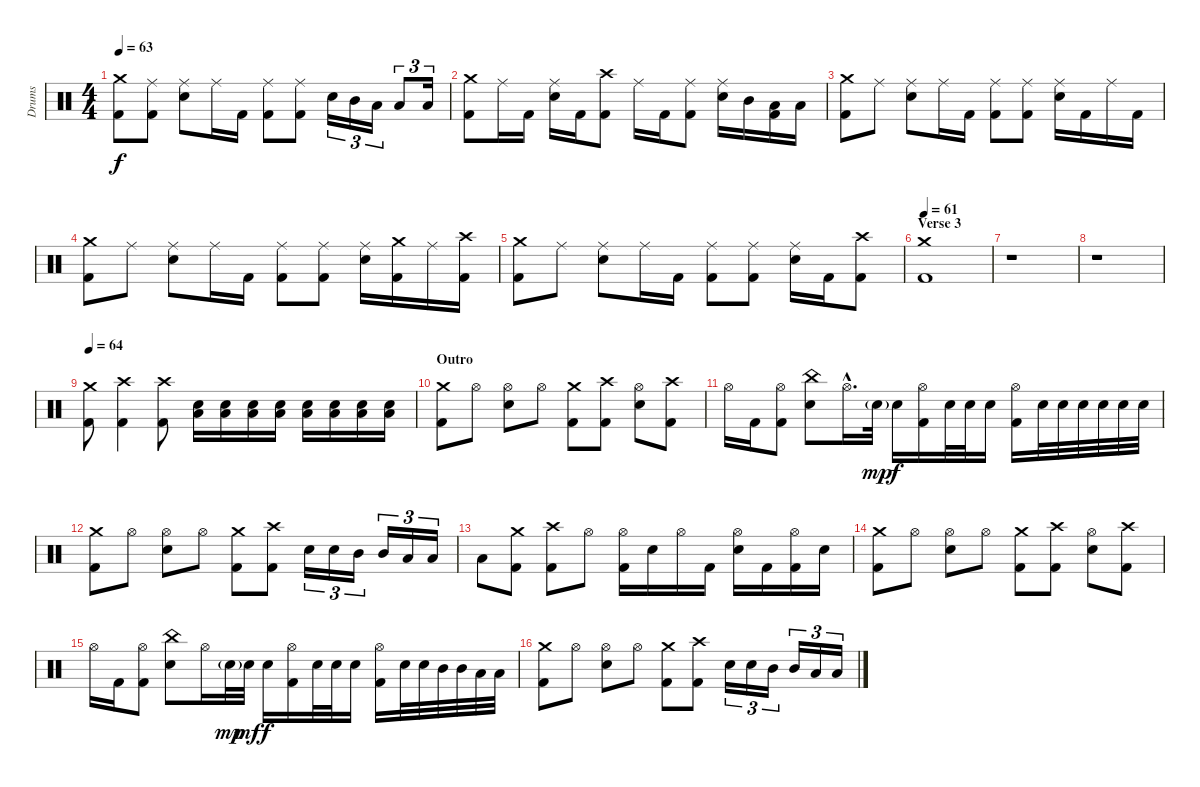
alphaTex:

\track ("Drums" "Drums") {instrument percussion}
\staff {score}
\articulation defaults
\ts (4 4)
\tempo 63
\clef neutral
\ks c
("Crash medium (hit)" "Kick (hit) 2").8{dy f} ("Ride (middle)" "Kick (hit) 2").8 ("Ride (middle)" "Electric Snare (hit)").8 "Ride (middle)".16 "Kick (hit) 2".16 ("Ride (middle)" "Kick (hit) 2").8 ("Ride (middle)" "Kick (hit) 2").8 "Electric Snare (hit)".16{tu (3 2)} "Mid Tom (hit)".16{tu (3 2)} "Low Tom (hit)".16{tu (3 2)} "Low Floor Tom (hit)".8{tu (3 2)} "Low Floor Tom (hit)".16{tu (3 2)} |
("Crash medium (hit)" "Kick (hit) 2").8 "Ride (middle)".16 "Kick (hit) 2".16 ("Ride (middle)" "Electric Snare (hit)").16 "Kick (hit) 2".16 ("Crash high (hit)" "Kick (hit) 2").8 "Ride (middle)".16 "Kick (hit) 2".16 ("Ride (middle)" "Kick (hit) 2").8 ("Ride (middle)" "Electric Snare (hit)").16 "Mid Tom (hit)".16 ("Low Tom (hit)" "Kick (hit) 2").16 "Low Tom (hit)".16 |
("Crash medium (hit)" "Kick (hit) 2").8 "Ride (middle)".8 ("Ride (middle)" "Electric Snare (hit)").8 "Ride (middle)".16 "Kick (hit) 2".16 ("Ride (middle)" "Kick (hit) 2").8 ("Ride (middle)" "Kick (hit) 2").8 ("Ride (middle)" "Electric Snare (hit)").16 "Kick (hit) 2".16 "Ride (middle)".16 "Kick (hit) 2".16 |
("Crash medium (hit)" "Kick (hit) 2").8 "Ride (middle)".8 ("Ride (middle)" "Electric Snare (hit)").8 "Ride (middle)".16 "Kick (hit) 2".16 ("Ride (middle)" "Kick (hit) 2").8 ("Ride (middle)" "Kick (hit) 2").8 ("Ride (middle)" "Electric Snare (hit)").16 ("Crash medium (hit)" "Kick (hit) 2").16 "Ride (middle)".16 ("Crash high (hit)" "Kick (hit) 2").16 |
("Crash medium (hit)" "Kick (hit) 2").8 "Ride (middle)".8 ("Ride (middle)" "Electric Snare (hit)").8 "Ride (middle)".16 "Kick (hit) 2".16 ("Ride (middle)" "Kick (hit) 2").8 ("Ride (middle)" "Kick (hit) 2").8 ("Ride (middle)" "Electric Snare (hit)").16 "Kick (hit) 2".16 ("Crash high (hit)" "Kick (hit) 2").8 |
\section ("" "Verse 3")
\tempo 61
("Crash medium (hit)" "Kick (hit) 2").1 |
r.1 |
r.1 |
\tempo 64
("Crash medium (hit)" "Kick (hit) 2").8 ("Crash high (hit)" "Kick (hit) 2").4 ("Crash high (hit)" "Kick (hit) 2").8 ("Low Floor Tom (hit)" "Electric Snare (hit)").16 ("Low Floor Tom (hit)" "Electric Snare (hit)").16 ("Low Floor Tom (hit)" "Electric Snare (hit)").16 ("Low Floor Tom (hit)" "Electric Snare (hit)").16 ("Low Floor Tom (hit)" "Electric Snare (hit)").16 ("Low Floor Tom (hit)" "Electric Snare (hit)").16 ("Low Floor Tom (hit)" "Electric Snare (hit)").16 ("Low Floor Tom (hit)" "Electric Snare (hit)").16 |
\section ("" "Outro")
("Crash medium (hit)" "Kick (hit) 2").8 "Hi-Hat (open)".8 ("Hi-Hat (open)" "Electric Snare (hit)").8 "Hi-Hat (open)".8 ("Crash medium (hit)" "Kick (hit) 2").8 ("Crash high (hit)" "Kick (hit) 2").8 ("Hi-Hat (open)" "Electric Snare (hit)").8 ("Crash high (hit)" "Kick (hit) 2").8 |
"Hi-Hat (open)".16 "Kick (hit) 2".16 ("Hi-Hat (open)" "Kick (hit) 2").8 ("China (hit)" "Electric Snare (hit)").8 "Hi-Hat (open)"{hac}.16{d} "Electric Snare (hit)"{g}.32{dy mp} "Electric Snare (hit)".16{dy f} ("Hi-Hat (open)" "Kick (hit) 2").16 "Electric Snare (hit)".32 "Electric Snare (hit)".32 "Electric Snare (hit)".16 ("Hi-Hat (open)" "Kick (hit) 2").16 "Electric Snare (hit)".32 "Electric Snare (hit)".32 "Electric Snare (hit)".32 "Electric Snare (hit)".32 "Electric Snare (hit)".32 "Electric Snare (hit)".32 |
("Crash medium (hit)" "Kick (hit) 2").8 "Hi-Hat (open)".8 ("Hi-Hat (open)" "Electric Snare (hit)").8 "Hi-Hat (open)".8 ("Crash medium (hit)" "Kick (hit) 2").8 ("Crash high (hit)" "Kick (hit) 2").8 "Electric Snare (hit)".16{tu (3 2)} "Electric Snare (hit)".16{tu (3 2)} "Mid Tom (hit)".16{tu (3 2)} "Mid Tom (hit)".16{tu (3 2)} "Low Tom (hit)".16{tu (3 2)} "Low Tom (hit)".16{tu (3 2)} |
"Low Floor Tom (hit)".8 ("Crash medium (hit)" "Kick (hit) 2").8 ("Crash high (hit)" "Kick (hit) 2").8 "Hi-Hat (open)".8 ("Hi-Hat (open)" "Kick (hit) 2").16 "Electric Snare (hit)".16 "Hi-Hat (open)".16 "Kick (hit) 2".16 ("Hi-Hat (open)" "Electric Snare (hit)").16 "Kick (hit) 2".16 ("Hi-Hat (open)" "Kick (hit) 2").16 "Electric Snare (hit)".16 |
("Crash medium (hit)" "Kick (hit) 2").8 "Hi-Hat (open)".8 ("Hi-Hat (open)" "Electric Snare (hit)").8 "Hi-Hat (open)".8 ("Crash medium (hit)" "Kick (hit) 2").8 ("Crash high (hit)" "Kick (hit) 2").8 ("Hi-Hat (open)" "Electric Snare (hit)").8 ("Crash high (hit)" "Kick (hit) 2").8 |
"Hi-Hat (open)".16 "Kick (hit) 2".16 ("Hi-Hat (open)" "Kick (hit) 2").8 ("China (hit)" "Electric Snare (hit)").8 "Hi-Hat (open)".16 "Electric Snare (hit)"{g}.32{dy mp} "Electric Snare (hit)".32{dy mf} "Electric Snare (hit)".16{dy f} ("Hi-Hat (open)" "Kick (hit) 2").16 "Electric Snare (hit)".32 "Electric Snare (hit)".32 "Electric Snare (hit)".16 ("Hi-Hat (open)" "Kick (hit) 2").16 "Electric Snare (hit)".32 "Electric Snare (hit)".32 "Mid Tom (hit)".32 "Mid Tom (hit)".32 "Low Tom (hit)".32 "Low Tom (hit)".32 |
("Crash medium (hit)" "Kick (hit) 2").8 "Hi-Hat (open)".8 ("Hi-Hat (open)" "Electric Snare (hit)").8 "Hi-Hat (open)".8 ("Crash medium (hit)" "Kick (hit) 2").8 ("Crash high (hit)" "Kick (hit) 2").8 "Electric Snare (hit)".16{tu (3 2)} "Electric Snare (hit)".16{tu (3 2)} "Mid Tom (hit)".16{tu (3 2)} "Mid Tom (hit)".16{tu (3 2)} "Low Tom (hit)".16{tu (3 2)} "Low Tom (hit)".16{tu (3 2)}
